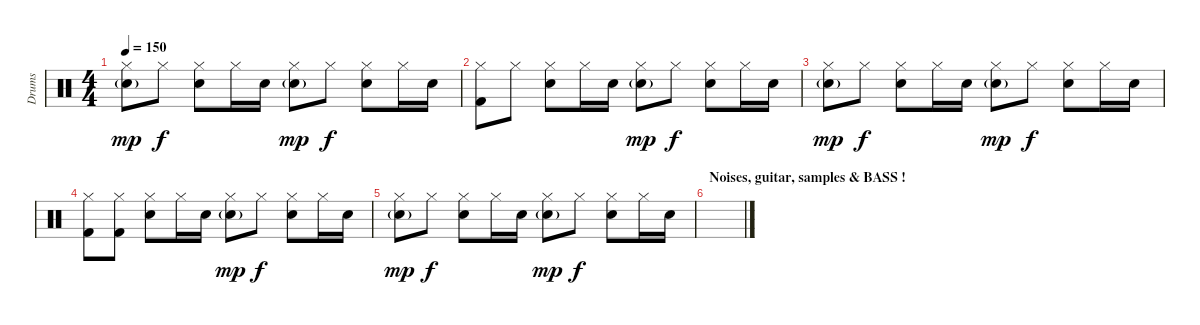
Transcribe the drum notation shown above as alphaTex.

\track ("Drums" "Drums") {instrument percussion}
\staff {score}
\articulation defaults
\ts (4 4)
\tempo 150
\clef neutral
\ks c
("Hi-Hat (closed)" "Snare (hit) 2"{g}).8{dy mp} "Hi-Hat (closed)".8{dy f} ("Hi-Hat (closed)" "Snare (hit) 2").8 "Hi-Hat (closed)".16 "Snare (hit) 2".16 ("Hi-Hat (closed)" "Snare (hit) 2"{g}).8{dy mp} "Hi-Hat (closed)".8{dy f} ("Hi-Hat (closed)" "Snare (hit) 2").8 "Hi-Hat (closed)".16 "Snare (hit) 2".16 |
("Hi-Hat (closed)" "Kick (hit) 2").8 "Hi-Hat (closed)".8 ("Hi-Hat (closed)" "Snare (hit) 2").8 "Hi-Hat (closed)".16 "Snare (hit) 2".16 ("Hi-Hat (closed)" "Snare (hit) 2"{g}).8{dy mp} "Hi-Hat (closed)".8{dy f} ("Hi-Hat (closed)" "Snare (hit) 2").8 "Hi-Hat (closed)".16 "Snare (hit) 2".16 |
("Hi-Hat (closed)" "Snare (hit) 2"{g}).8{dy mp} "Hi-Hat (closed)".8{dy f} ("Hi-Hat (closed)" "Snare (hit) 2").8 "Hi-Hat (closed)".16 "Snare (hit) 2".16 ("Hi-Hat (closed)" "Snare (hit) 2"{g}).8{dy mp} "Hi-Hat (closed)".8{dy f} ("Hi-Hat (closed)" "Snare (hit) 2").8 "Hi-Hat (closed)".16 "Snare (hit) 2".16 |
("Hi-Hat (closed)" "Kick (hit) 2").8 ("Hi-Hat (closed)" "Kick (hit) 2").8 ("Hi-Hat (closed)" "Snare (hit) 2").8 "Hi-Hat (closed)".16 "Snare (hit) 2".16 ("Hi-Hat (closed)" "Snare (hit) 2"{g}).8{dy mp} "Hi-Hat (closed)".8{dy f} ("Hi-Hat (closed)" "Snare (hit) 2").8 "Hi-Hat (closed)".16 "Snare (hit) 2".16 |
("Hi-Hat (closed)" "Snare (hit) 2"{g}).8{dy mp} "Hi-Hat (closed)".8{dy f} ("Hi-Hat (closed)" "Snare (hit) 2").8 "Hi-Hat (closed)".16 "Snare (hit) 2".16 ("Hi-Hat (closed)" "Snare (hit) 2"{g}).8{dy mp} "Hi-Hat (closed)".8{dy f} ("Hi-Hat (closed)" "Snare (hit) 2").8 "Hi-Hat (closed)".16 "Snare (hit) 2".16 |
\section ("" "Noises, guitar, samples & BASS !")
